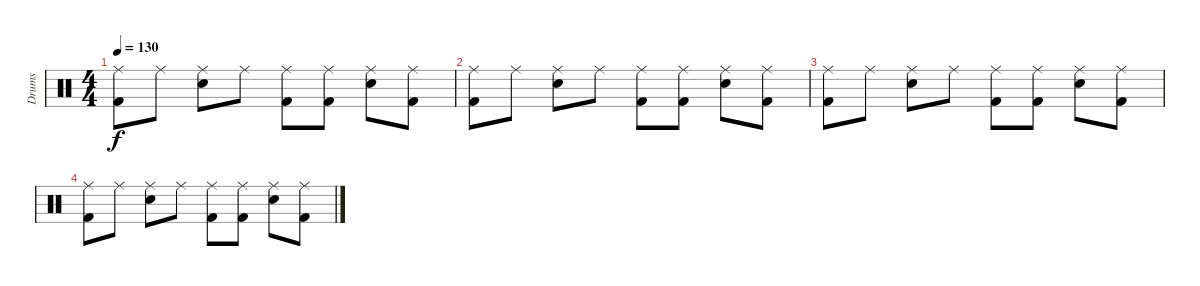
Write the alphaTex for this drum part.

\track ("Drums" "Drums") {instrument percussion}
\staff {score}
\articulation defaults
\ts (4 4)
\tempo 130
\clef neutral
\ks c
("Ride (middle)" "Kick (hit) 2").8{dy f} "Ride (middle)".8 ("Ride (middle)" "Electric Snare (hit)").8 "Ride (middle)".8 ("Ride (middle)" "Kick (hit) 2").8 ("Ride (middle)" "Kick (hit) 2").8 ("Ride (middle)" "Electric Snare (hit)").8 ("Ride (middle)" "Kick (hit) 2").8 |
("Ride (middle)" "Kick (hit) 2").8 "Ride (middle)".8 ("Ride (middle)" "Electric Snare (hit)").8 "Ride (middle)".8 ("Ride (middle)" "Kick (hit) 2").8 ("Ride (middle)" "Kick (hit) 2").8 ("Ride (middle)" "Electric Snare (hit)").8 ("Ride (middle)" "Kick (hit) 2").8 |
("Ride (middle)" "Kick (hit) 2").8 "Ride (middle)".8 ("Ride (middle)" "Electric Snare (hit)").8 "Ride (middle)".8 ("Ride (middle)" "Kick (hit) 2").8 ("Ride (middle)" "Kick (hit) 2").8 ("Ride (middle)" "Electric Snare (hit)").8 ("Ride (middle)" "Kick (hit) 2").8 |
("Ride (middle)" "Kick (hit) 2").8 "Ride (middle)".8 ("Ride (middle)" "Electric Snare (hit)").8 "Ride (middle)".8 ("Ride (middle)" "Kick (hit) 2").8 ("Ride (middle)" "Kick (hit) 2").8 ("Ride (middle)" "Electric Snare (hit)").8 ("Ride (middle)" "Kick (hit) 2").8
